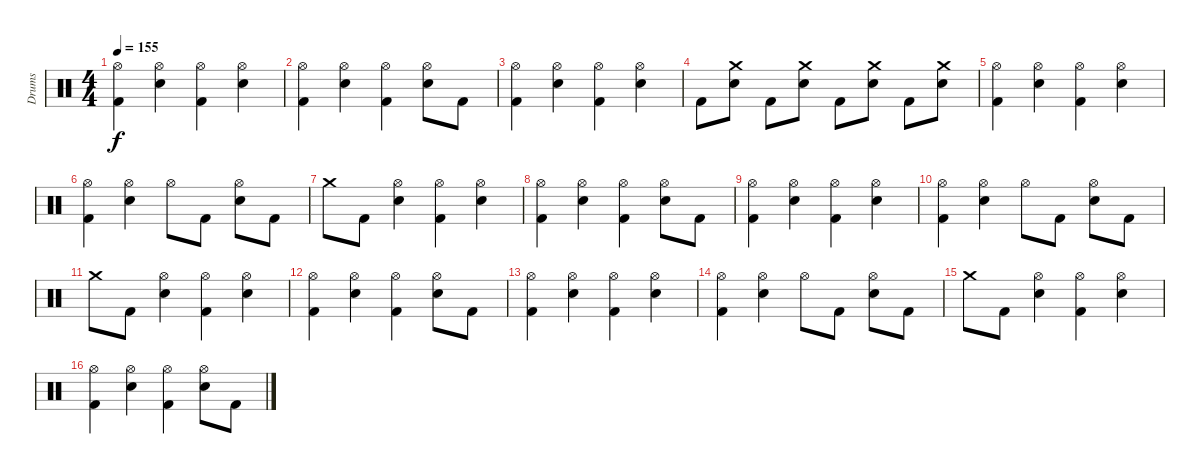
\track ("Drums" "Drums") {instrument percussion}
\staff {score}
\articulation defaults
\ts (4 4)
\tempo 155
\clef neutral
\ks c
("Hi-Hat (open)" "Kick (hit) 2").4{dy f} ("Hi-Hat (open)" "Snare (hit) 2").4 ("Hi-Hat (open)" "Kick (hit) 2").4 ("Hi-Hat (open)" "Snare (hit) 2").4 |
("Hi-Hat (open)" "Kick (hit) 2").4 ("Hi-Hat (open)" "Snare (hit) 2").4 ("Hi-Hat (open)" "Kick (hit) 2").4 ("Hi-Hat (open)" "Snare (hit) 2").8 "Kick (hit) 2".8 |
("Hi-Hat (open)" "Kick (hit) 2").4 ("Hi-Hat (open)" "Snare (hit) 2").4 ("Hi-Hat (open)" "Kick (hit) 2").4 ("Hi-Hat (open)" "Snare (hit) 2").4 |
"Kick (hit) 2".8 ("Crash medium (hit)" "Snare (hit) 2").8 "Kick (hit) 2".8 ("Crash medium (hit)" "Snare (hit) 2").8 "Kick (hit) 2".8 ("Crash medium (hit)" "Snare (hit) 2").8 "Kick (hit) 2".8 ("Crash medium (hit)" "Snare (hit) 2").8 |
("Hi-Hat (open)" "Kick (hit) 2").4 ("Hi-Hat (open)" "Snare (hit) 2").4 ("Hi-Hat (open)" "Kick (hit) 2").4 ("Hi-Hat (open)" "Snare (hit) 2").4 |
("Hi-Hat (open)" "Kick (hit) 2").4 ("Hi-Hat (open)" "Snare (hit) 2").4 "Hi-Hat (open)".8 "Kick (hit) 2".8 ("Hi-Hat (open)" "Snare (hit) 2").8 "Kick (hit) 2".8 |
"Crash medium (hit)".8 "Kick (hit) 2".8 ("Hi-Hat (open)" "Snare (hit) 2").4 ("Hi-Hat (open)" "Kick (hit) 2").4 ("Hi-Hat (open)" "Snare (hit) 2").4 |
("Hi-Hat (open)" "Kick (hit) 2").4 ("Hi-Hat (open)" "Snare (hit) 2").4 ("Hi-Hat (open)" "Kick (hit) 2").4 ("Hi-Hat (open)" "Snare (hit) 2").8 "Kick (hit) 2".8 |
("Hi-Hat (open)" "Kick (hit) 2").4 ("Hi-Hat (open)" "Snare (hit) 2").4 ("Hi-Hat (open)" "Kick (hit) 2").4 ("Hi-Hat (open)" "Snare (hit) 2").4 |
("Hi-Hat (open)" "Kick (hit) 2").4 ("Hi-Hat (open)" "Snare (hit) 2").4 "Hi-Hat (open)".8 "Kick (hit) 2".8 ("Hi-Hat (open)" "Snare (hit) 2").8 "Kick (hit) 2".8 |
"Crash medium (hit)".8 "Kick (hit) 2".8 ("Hi-Hat (open)" "Snare (hit) 2").4 ("Hi-Hat (open)" "Kick (hit) 2").4 ("Hi-Hat (open)" "Snare (hit) 2").4 |
("Hi-Hat (open)" "Kick (hit) 2").4 ("Hi-Hat (open)" "Snare (hit) 2").4 ("Hi-Hat (open)" "Kick (hit) 2").4 ("Hi-Hat (open)" "Snare (hit) 2").8 "Kick (hit) 2".8 |
("Hi-Hat (open)" "Kick (hit) 2").4 ("Hi-Hat (open)" "Snare (hit) 2").4 ("Hi-Hat (open)" "Kick (hit) 2").4 ("Hi-Hat (open)" "Snare (hit) 2").4 |
("Hi-Hat (open)" "Kick (hit) 2").4 ("Hi-Hat (open)" "Snare (hit) 2").4 "Hi-Hat (open)".8 "Kick (hit) 2".8 ("Hi-Hat (open)" "Snare (hit) 2").8 "Kick (hit) 2".8 |
"Crash medium (hit)".8 "Kick (hit) 2".8 ("Hi-Hat (open)" "Snare (hit) 2").4 ("Hi-Hat (open)" "Kick (hit) 2").4 ("Hi-Hat (open)" "Snare (hit) 2").4 |
("Hi-Hat (open)" "Kick (hit) 2").4 ("Hi-Hat (open)" "Snare (hit) 2").4 ("Hi-Hat (open)" "Kick (hit) 2").4 ("Hi-Hat (open)" "Snare (hit) 2").8 "Kick (hit) 2".8
